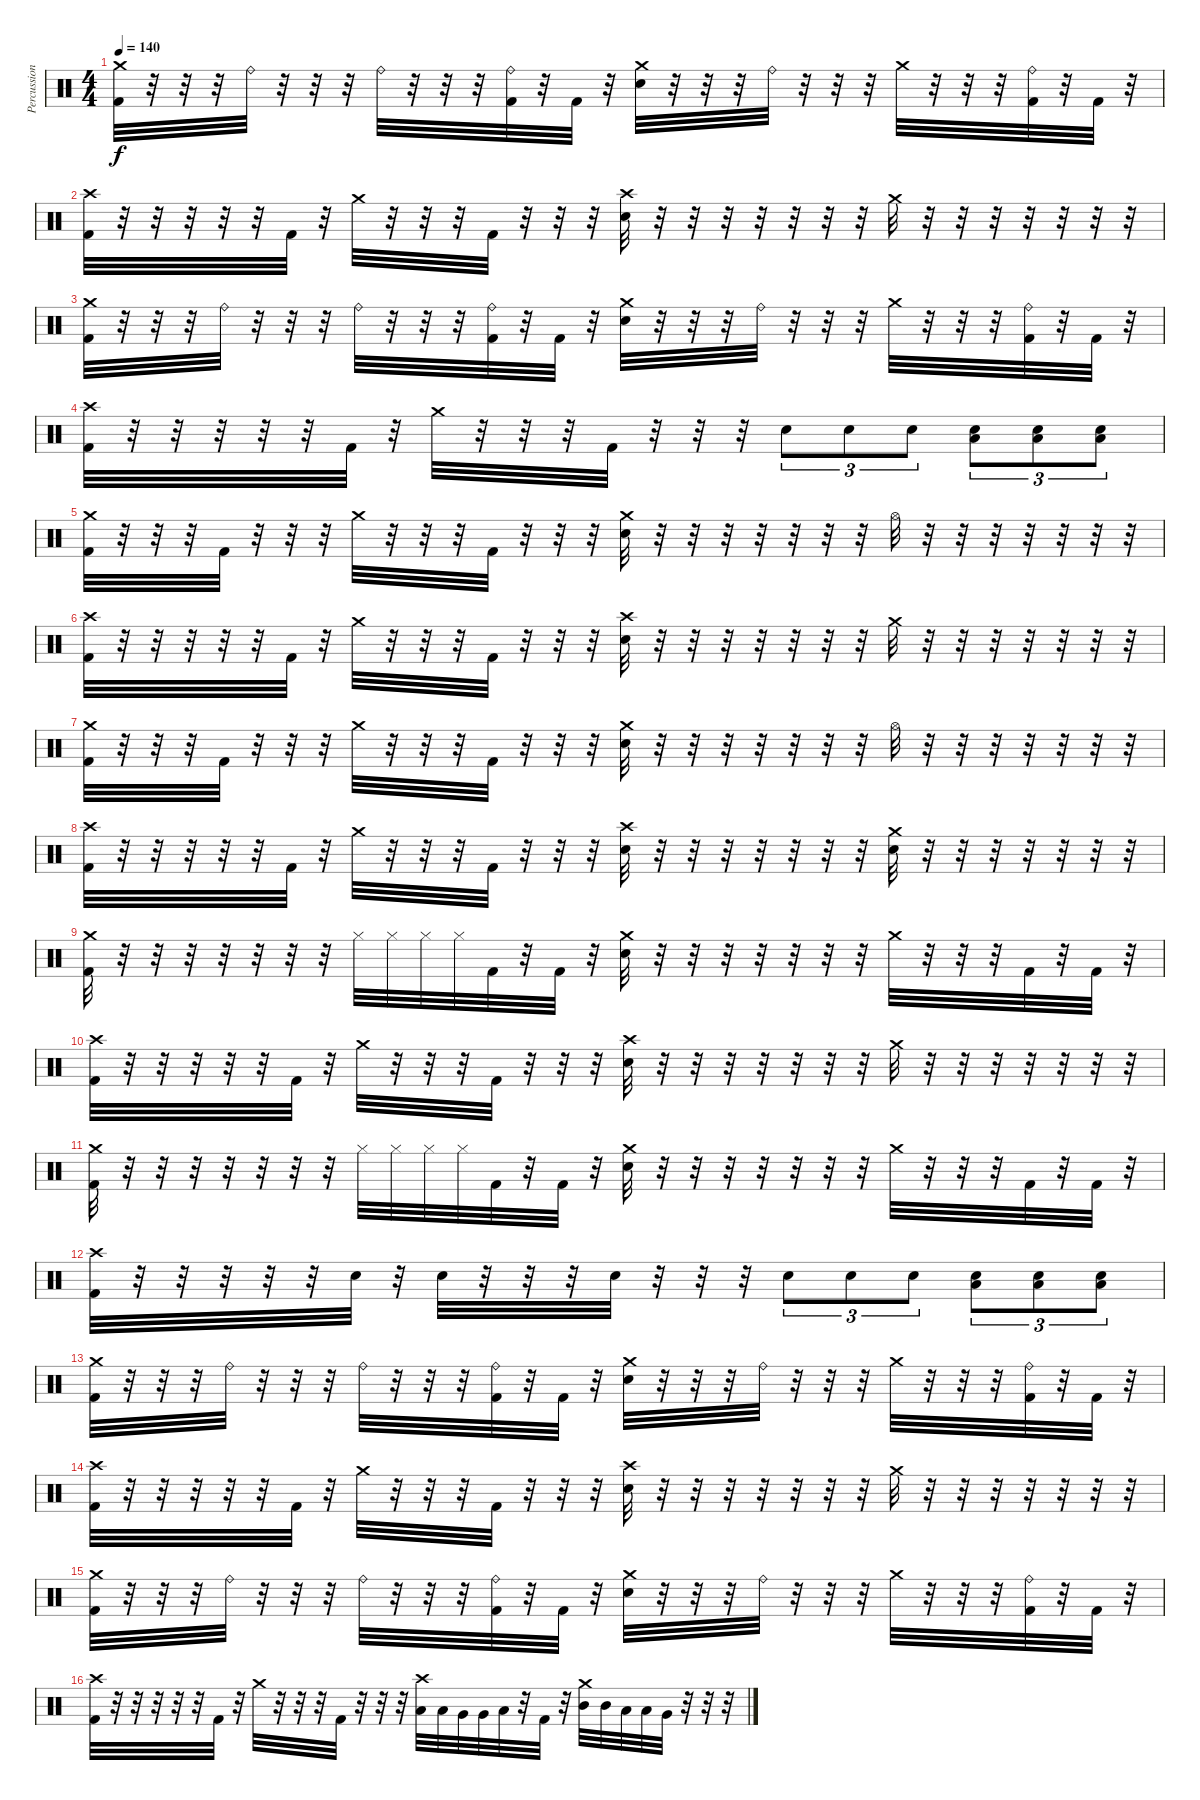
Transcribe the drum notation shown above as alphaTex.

\track ("Percussion" "Percussion") {instrument percussion}
\staff {score}
\articulation defaults
\ts (4 4)
\tempo 140
\clef neutral
\ks c
("Crash medium (hit)" "Kick (hit) 2").32{dy f} r.32 r.32 r.32 "Ride (bell)".32 r.32 r.32 r.32 "Ride (bell)".32 r.32 r.32 r.32 ("Ride (bell)" "Kick (hit) 2").32 r.32 "Kick (hit) 2".32 r.32 ("Crash medium (hit)" "Electric Snare (hit)").32 r.32 r.32 r.32 "Ride (bell)".32 r.32 r.32 r.32 "Crash medium (hit)".32 r.32 r.32 r.32 ("Ride (bell)" "Kick (hit) 2").32 r.32 "Kick (hit) 2".32 r.32 |
("Crash high (hit)" "Kick (hit) 2").32 r.32 r.32 r.32 r.32 r.32 "Kick (hit) 2".32 r.32 "Crash medium (hit)".32 r.32 r.32 r.32 "Kick (hit) 2".32 r.32 r.32 r.32 ("Crash high (hit)" "Electric Snare (hit)").32 r.32 r.32 r.32 r.32 r.32 r.32 r.32 "Crash medium (hit)".32 r.32 r.32 r.32 r.32 r.32 r.32 r.32 |
("Crash medium (hit)" "Kick (hit) 2").32 r.32 r.32 r.32 "Ride (bell)".32 r.32 r.32 r.32 "Ride (bell)".32 r.32 r.32 r.32 ("Ride (bell)" "Kick (hit) 2").32 r.32 "Kick (hit) 2".32 r.32 ("Crash medium (hit)" "Electric Snare (hit)").32 r.32 r.32 r.32 "Ride (bell)".32 r.32 r.32 r.32 "Crash medium (hit)".32 r.32 r.32 r.32 ("Ride (bell)" "Kick (hit) 2").32 r.32 "Kick (hit) 2".32 r.32 |
("Crash high (hit)" "Kick (hit) 2").32 r.32 r.32 r.32 r.32 r.32 "Kick (hit) 2".32 r.32 "Crash medium (hit)".32 r.32 r.32 r.32 "Kick (hit) 2".32 r.32 r.32 r.32 "Electric Snare (hit)".8{tu (3 2)} "Electric Snare (hit)".8{tu (3 2)} "Electric Snare (hit)".8{tu (3 2)} ("Electric Snare (hit)" "Low Floor Tom (hit)").8{tu (3 2)} ("Electric Snare (hit)" "Low Floor Tom (hit)").8{tu (3 2)} ("Electric Snare (hit)" "Low Floor Tom (hit)").8{tu (3 2)} |
("Crash medium (hit)" "Kick (hit) 2").32 r.32 r.32 r.32 "Kick (hit) 2".32 r.32 r.32 r.32 "Crash medium (hit)".32 r.32 r.32 r.32 "Kick (hit) 2".32 r.32 r.32 r.32 ("Crash medium (hit)" "Electric Snare (hit)").32 r.32 r.32 r.32 r.32 r.32 r.32 r.32 "Hi-Hat (open)".32 r.32 r.32 r.32 r.32 r.32 r.32 r.32 |
("Crash high (hit)" "Kick (hit) 2").32 r.32 r.32 r.32 r.32 r.32 "Kick (hit) 2".32 r.32 "Crash medium (hit)".32 r.32 r.32 r.32 "Kick (hit) 2".32 r.32 r.32 r.32 ("Crash high (hit)" "Electric Snare (hit)").32 r.32 r.32 r.32 r.32 r.32 r.32 r.32 "Crash medium (hit)".32 r.32 r.32 r.32 r.32 r.32 r.32 r.32 |
("Crash medium (hit)" "Kick (hit) 2").32 r.32 r.32 r.32 "Kick (hit) 2".32 r.32 r.32 r.32 "Crash medium (hit)".32 r.32 r.32 r.32 "Kick (hit) 2".32 r.32 r.32 r.32 ("Crash medium (hit)" "Electric Snare (hit)").32 r.32 r.32 r.32 r.32 r.32 r.32 r.32 "Hi-Hat (open)".32 r.32 r.32 r.32 r.32 r.32 r.32 r.32 |
("Crash high (hit)" "Kick (hit) 2").32 r.32 r.32 r.32 r.32 r.32 "Kick (hit) 2".32 r.32 "Crash medium (hit)".32 r.32 r.32 r.32 "Kick (hit) 2".32 r.32 r.32 r.32 ("Crash high (hit)" "Electric Snare (hit)").32 r.32 r.32 r.32 r.32 r.32 r.32 r.32 ("Crash medium (hit)" "Electric Snare (hit)").32 r.32 r.32 r.32 r.32 r.32 r.32 r.32 |
("Crash medium (hit)" "Kick (hit) 2").32 r.32 r.32 r.32 r.32 r.32 r.32 r.32 "Hi-Hat (closed)".32 "Hi-Hat (closed)".32 "Hi-Hat (closed)".32 "Hi-Hat (closed)".32 "Kick (hit) 2".32 r.32 "Kick (hit) 2".32 r.32 ("Crash medium (hit)" "Electric Snare (hit)").32 r.32 r.32 r.32 r.32 r.32 r.32 r.32 "Crash medium (hit)".32 r.32 r.32 r.32 "Kick (hit) 2".32 r.32 "Kick (hit) 2".32 r.32 |
("Crash high (hit)" "Kick (hit) 2").32 r.32 r.32 r.32 r.32 r.32 "Kick (hit) 2".32 r.32 "Crash medium (hit)".32 r.32 r.32 r.32 "Kick (hit) 2".32 r.32 r.32 r.32 ("Crash high (hit)" "Electric Snare (hit)").32 r.32 r.32 r.32 r.32 r.32 r.32 r.32 "Crash medium (hit)".32 r.32 r.32 r.32 r.32 r.32 r.32 r.32 |
("Crash medium (hit)" "Kick (hit) 2").32 r.32 r.32 r.32 r.32 r.32 r.32 r.32 "Hi-Hat (closed)".32 "Hi-Hat (closed)".32 "Hi-Hat (closed)".32 "Hi-Hat (closed)".32 "Kick (hit) 2".32 r.32 "Kick (hit) 2".32 r.32 ("Crash medium (hit)" "Electric Snare (hit)").32 r.32 r.32 r.32 r.32 r.32 r.32 r.32 "Crash medium (hit)".32 r.32 r.32 r.32 "Kick (hit) 2".32 r.32 "Kick (hit) 2".32 r.32 |
("Crash high (hit)" "Kick (hit) 2").32 r.32 r.32 r.32 r.32 r.32 "Snare (hit)".32 r.32 "Snare (hit)".32 r.32 r.32 r.32 "Snare (hit)".32 r.32 r.32 r.32 "Electric Snare (hit)".8{tu (3 2)} "Electric Snare (hit)".8{tu (3 2)} "Electric Snare (hit)".8{tu (3 2)} ("Electric Snare (hit)" "Low Floor Tom (hit)").8{tu (3 2)} ("Electric Snare (hit)" "Low Floor Tom (hit)").8{tu (3 2)} ("Electric Snare (hit)" "Low Floor Tom (hit)").8{tu (3 2)} |
("Crash medium (hit)" "Kick (hit) 2").32 r.32 r.32 r.32 "Ride (bell)".32 r.32 r.32 r.32 "Ride (bell)".32 r.32 r.32 r.32 ("Ride (bell)" "Kick (hit) 2").32 r.32 "Kick (hit) 2".32 r.32 ("Crash medium (hit)" "Electric Snare (hit)").32 r.32 r.32 r.32 "Ride (bell)".32 r.32 r.32 r.32 "Crash medium (hit)".32 r.32 r.32 r.32 ("Ride (bell)" "Kick (hit) 2").32 r.32 "Kick (hit) 2".32 r.32 |
("Crash high (hit)" "Kick (hit) 2").32 r.32 r.32 r.32 r.32 r.32 "Kick (hit) 2".32 r.32 "Crash medium (hit)".32 r.32 r.32 r.32 "Kick (hit) 2".32 r.32 r.32 r.32 ("Crash high (hit)" "Electric Snare (hit)").32 r.32 r.32 r.32 r.32 r.32 r.32 r.32 "Crash medium (hit)".32 r.32 r.32 r.32 r.32 r.32 r.32 r.32 |
("Crash medium (hit)" "Kick (hit) 2").32 r.32 r.32 r.32 "Ride (bell)".32 r.32 r.32 r.32 "Ride (bell)".32 r.32 r.32 r.32 ("Ride (bell)" "Kick (hit) 2").32 r.32 "Kick (hit) 2".32 r.32 ("Crash medium (hit)" "Electric Snare (hit)").32 r.32 r.32 r.32 "Ride (bell)".32 r.32 r.32 r.32 "Crash medium (hit)".32 r.32 r.32 r.32 ("Ride (bell)" "Kick (hit) 2").32 r.32 "Kick (hit) 2".32 r.32 |
("Crash high (hit)" "Kick (hit) 2").32 r.32 r.32 r.32 r.32 r.32 "Kick (hit) 2".32 r.32 "Crash medium (hit)".32 r.32 r.32 r.32 "Kick (hit) 2".32 r.32 r.32 r.32 ("Crash high (hit)" "Low Tom (hit)").32 "Low Tom (hit)".32 "Very Low Tom (hit)".32 "Very Low Tom (hit)".32 "Low Floor Tom (hit)".32 r.32 "Kick (hit) 2".32 r.32 ("Crash medium (hit)" "Mid Tom (hit)").32 "Mid Tom (hit)".32 "Low Tom (hit)".32 "Low Tom (hit)".32 "Very Low Tom (hit)".32 r.32 r.32 r.32
